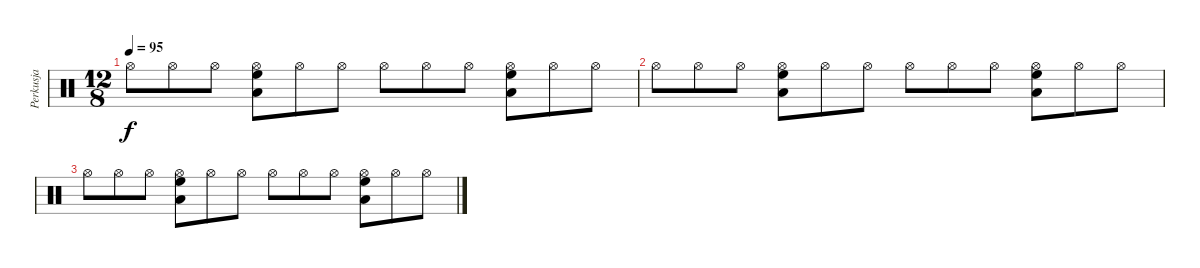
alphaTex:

\track ("Perkusja" "Perkusja") {instrument percussion}
\staff {score}
\articulation defaults
\ts (12 8)
\tempo 95
\clef neutral
\ks c "Hi-Hat (open)".8{dy f} "Hi-Hat (open)".8 "Hi-Hat (open)".8
("Hi-Hat (open)" "Low Tom (hit)" "High Floor Tom (hit)").8 "Hi-Hat (open)".8 "Hi-Hat (open)".8 "Hi-Hat (open)".8 "Hi-Hat (open)".8 "Hi-Hat (open)".8 ("Hi-Hat (open)" "Low Tom (hit)" "High Floor Tom (hit)").8 "Hi-Hat (open)".8 "Hi-Hat (open)".8 |
"Hi-Hat (open)".8 "Hi-Hat (open)".8 "Hi-Hat (open)".8 ("Hi-Hat (open)" "Low Tom (hit)" "High Floor Tom (hit)").8 "Hi-Hat (open)".8 "Hi-Hat (open)".8 "Hi-Hat (open)".8 "Hi-Hat (open)".8 "Hi-Hat (open)".8 ("Hi-Hat (open)" "Low Tom (hit)" "High Floor Tom (hit)").8 "Hi-Hat (open)".8 "Hi-Hat (open)".8 |
"Hi-Hat (open)".8 "Hi-Hat (open)".8 "Hi-Hat (open)".8 ("Hi-Hat (open)" "Low Tom (hit)" "High Floor Tom (hit)").8 "Hi-Hat (open)".8 "Hi-Hat (open)".8 "Hi-Hat (open)".8 "Hi-Hat (open)".8 "Hi-Hat (open)".8 ("Hi-Hat (open)" "Low Tom (hit)" "High Floor Tom (hit)").8 "Hi-Hat (open)".8 "Hi-Hat (open)".8
